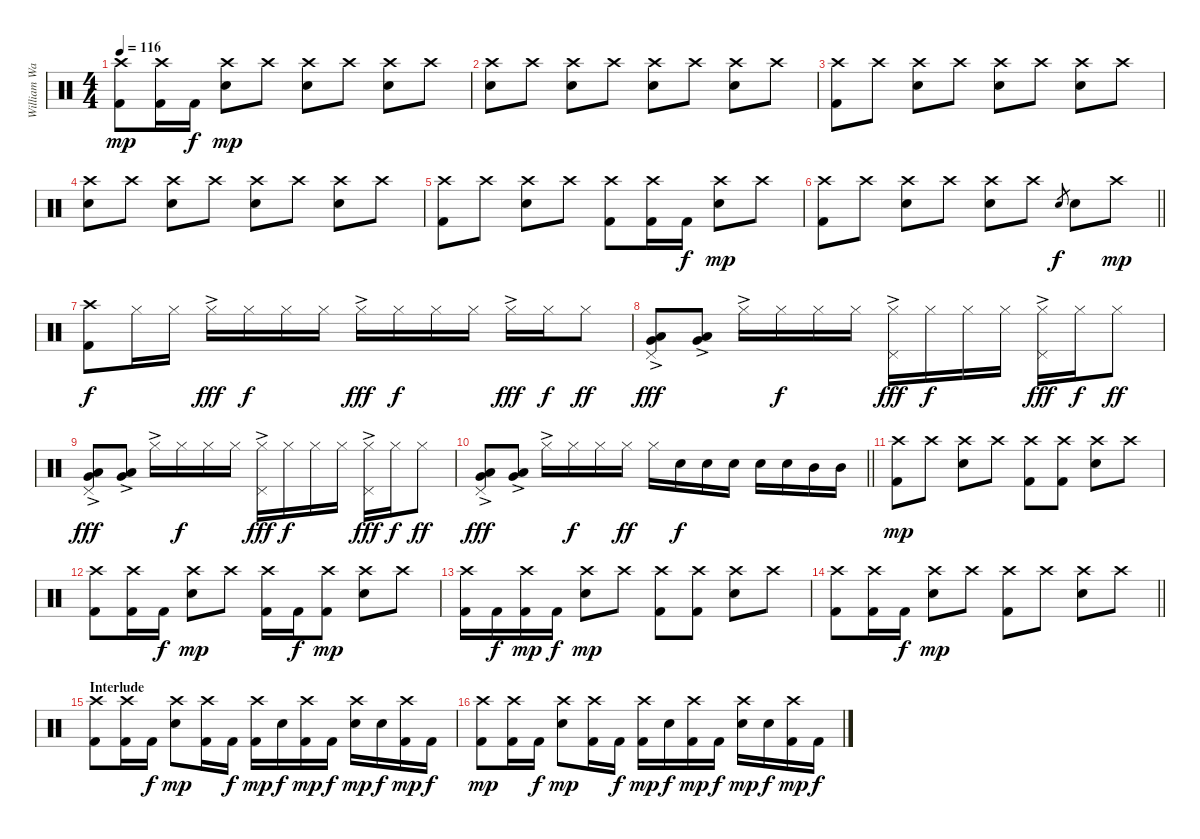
\track ("William Ward" "William Wa") {instrument percussion}
\staff {score}
\articulation defaults
\ts (4 4)
\tempo 116
\clef neutral
\ks c
("Crash high (hit)" "Kick (hit) 2").8{dy mp} ("Crash high (hit)" "Kick (hit) 2").16 "Kick (hit) 2".16{dy f} ("Crash high (hit)" "Snare (hit) 2").8{dy mp} "Crash high (hit)".8 ("Crash high (hit)" "Snare (hit) 2").8 "Crash high (hit)".8 ("Crash high (hit)" "Snare (hit) 2").8 "Crash high (hit)".8 |
("Crash high (hit)" "Snare (hit) 2").8 "Crash high (hit)".8 ("Crash high (hit)" "Snare (hit) 2").8 "Crash high (hit)".8 ("Crash high (hit)" "Snare (hit) 2").8 "Crash high (hit)".8 ("Crash high (hit)" "Snare (hit) 2").8 "Crash high (hit)".8 |
("Crash high (hit)" "Kick (hit) 2").8 "Crash high (hit)".8 ("Crash high (hit)" "Snare (hit) 2").8 "Crash high (hit)".8 ("Crash high (hit)" "Snare (hit) 2").8 "Crash high (hit)".8 ("Crash high (hit)" "Snare (hit) 2").8 "Crash high (hit)".8 |
("Crash high (hit)" "Snare (hit) 2").8 "Crash high (hit)".8 ("Crash high (hit)" "Snare (hit) 2").8 "Crash high (hit)".8 ("Crash high (hit)" "Snare (hit) 2").8 "Crash high (hit)".8 ("Crash high (hit)" "Snare (hit) 2").8 "Crash high (hit)".8 |
("Crash high (hit)" "Kick (hit) 2").8 "Crash high (hit)".8 ("Crash high (hit)" "Snare (hit) 2").8 "Crash high (hit)".8 ("Crash high (hit)" "Kick (hit) 2").8 ("Crash high (hit)" "Kick (hit) 2").16 "Kick (hit) 2".16{dy f} ("Crash high (hit)" "Snare (hit) 2").8{dy mp} "Crash high (hit)".8 |
\barLineRight lightlight
("Crash high (hit)" "Kick (hit) 2").8 "Crash high (hit)".8 ("Crash high (hit)" "Snare (hit) 2").8 "Crash high (hit)".8 ("Crash high (hit)" "Snare (hit) 2").8 "Crash high (hit)".8 "Snare (hit) 2".8{gr dy f} "Snare (hit) 2".8 "Crash high (hit)".8{dy mp} |
("Crash high (hit)" "Kick (hit) 2").8{dy f} "Hi-Hat (closed)".16 "Hi-Hat (closed)".16 "Hi-Hat (closed)"{ac}.16{dy fff} "Hi-Hat (closed)".16{dy f} "Hi-Hat (closed)".16 "Hi-Hat (closed)".16 "Hi-Hat (closed)"{ac}.16{dy fff} "Hi-Hat (closed)".16{dy f} "Hi-Hat (closed)".16 "Hi-Hat (closed)".16 "Hi-Hat (closed)"{ac}.16{dy fff} "Hi-Hat (closed)".16{dy f} "Hi-Hat (closed)".8{dy ff} |
("Low Tom (hit)"{ac} "Very Low Tom (hit)"{ac} "Pedal Hi-Hat (hit)"{ac}).8{dy fff} ("Low Tom (hit)"{ac} "Very Low Tom (hit)"{ac}).8 "Hi-Hat (closed)"{ac}.16 "Hi-Hat (closed)".16{dy f} "Hi-Hat (closed)".16 "Hi-Hat (closed)".16 ("Hi-Hat (closed)"{ac} "Pedal Hi-Hat (hit)").16{dy fff} "Hi-Hat (closed)".16{dy f} "Hi-Hat (closed)".16 "Hi-Hat (closed)".16 ("Hi-Hat (closed)"{ac} "Pedal Hi-Hat (hit)").16{dy fff} "Hi-Hat (closed)".16{dy f} "Hi-Hat (closed)".8{dy ff} |
("Low Tom (hit)"{ac} "Very Low Tom (hit)"{ac} "Pedal Hi-Hat (hit)"{ac}).8{dy fff} ("Low Tom (hit)"{ac} "Very Low Tom (hit)"{ac}).8 "Hi-Hat (closed)"{ac}.16 "Hi-Hat (closed)".16{dy f} "Hi-Hat (closed)".16 "Hi-Hat (closed)".16 ("Hi-Hat (closed)"{ac} "Pedal Hi-Hat (hit)").16{dy fff} "Hi-Hat (closed)".16{dy f} "Hi-Hat (closed)".16 "Hi-Hat (closed)".16 ("Hi-Hat (closed)"{ac} "Pedal Hi-Hat (hit)").16{dy fff} "Hi-Hat (closed)".16{dy f} "Hi-Hat (closed)".8{dy ff} |
\barLineRight lightlight
("Low Tom (hit)"{ac} "Very Low Tom (hit)"{ac} "Pedal Hi-Hat (hit)"{ac}).8{dy fff} ("Low Tom (hit)"{ac} "Very Low Tom (hit)"{ac}).8 "Hi-Hat (closed)"{ac}.16 "Hi-Hat (closed)".16{dy f} "Hi-Hat (closed)".16 "Hi-Hat (closed)".16{dy ff} "Hi-Hat (closed)".16 "Snare (hit) 2".16{dy f} "Snare (hit) 2".16 "Snare (hit) 2".16 "Snare (hit) 2".16 "Snare (hit) 2".16 "Mid Tom (hit)".16 "Mid Tom (hit)".16 |
("Crash high (hit)" "Kick (hit) 2").8{dy mp} "Crash high (hit)".8 ("Crash high (hit)" "Snare (hit) 2").8 "Crash high (hit)".8 ("Crash high (hit)" "Kick (hit) 2").8 ("Crash high (hit)" "Kick (hit) 2").8 ("Crash high (hit)" "Snare (hit) 2").8 "Crash high (hit)".8 |
("Crash high (hit)" "Kick (hit) 2").8 ("Crash high (hit)" "Kick (hit) 2").16 "Kick (hit) 2".16{dy f} ("Crash high (hit)" "Snare (hit) 2").8{dy mp} "Crash high (hit)".8 ("Crash high (hit)" "Kick (hit) 2").16 "Kick (hit) 2".16{dy f} ("Crash high (hit)" "Kick (hit) 2").8{dy mp} ("Crash high (hit)" "Snare (hit) 2").8 "Crash high (hit)".8 |
("Crash high (hit)" "Kick (hit) 2").16 "Kick (hit) 2".16{dy f} ("Crash high (hit)" "Kick (hit) 2").16{dy mp} "Kick (hit) 2".16{dy f} ("Crash high (hit)" "Snare (hit) 2").8{dy mp} "Crash high (hit)".8 ("Crash high (hit)" "Kick (hit) 2").8 ("Crash high (hit)" "Kick (hit) 2").8 ("Crash high (hit)" "Snare (hit) 2").8 "Crash high (hit)".8 |
\barLineRight lightlight
("Crash high (hit)" "Kick (hit) 2").8 ("Crash high (hit)" "Kick (hit) 2").16 "Kick (hit) 2".16{dy f} ("Crash high (hit)" "Snare (hit) 2").8{dy mp} "Crash high (hit)".8 ("Crash high (hit)" "Kick (hit) 2").8 "Crash high (hit)".8 ("Crash high (hit)" "Snare (hit) 2").8 "Crash high (hit)".8 |
\section ("" "Interlude")
("Crash high (hit)" "Kick (hit) 2").8 ("Crash high (hit)" "Kick (hit) 2").16 "Kick (hit) 2".16{dy f} ("Crash high (hit)" "Snare (hit) 2").8{dy mp} ("Crash high (hit)" "Kick (hit) 2").16 "Kick (hit) 2".16{dy f} ("Crash high (hit)" "Kick (hit) 2").16{dy mp} "Snare (hit) 2".16{dy f} ("Crash high (hit)" "Kick (hit) 2").16{dy mp} "Kick (hit) 2".16{dy f} ("Crash high (hit)" "Snare (hit) 2").16{dy mp} "Snare (hit) 2".16{dy f} ("Crash high (hit)" "Kick (hit) 2").16{dy mp} "Kick (hit) 2".16{dy f} |
("Crash high (hit)" "Kick (hit) 2").8{dy mp} ("Crash high (hit)" "Kick (hit) 2").16 "Kick (hit) 2".16{dy f} ("Crash high (hit)" "Snare (hit) 2").8{dy mp} ("Crash high (hit)" "Kick (hit) 2").16 "Kick (hit) 2".16{dy f} ("Crash high (hit)" "Kick (hit) 2").16{dy mp} "Snare (hit) 2".16{dy f} ("Crash high (hit)" "Kick (hit) 2").16{dy mp} "Kick (hit) 2".16{dy f} ("Crash high (hit)" "Snare (hit) 2").16{dy mp} "Snare (hit) 2".16{dy f} ("Crash high (hit)" "Kick (hit) 2").16{dy mp} "Kick (hit) 2".16{dy f}
